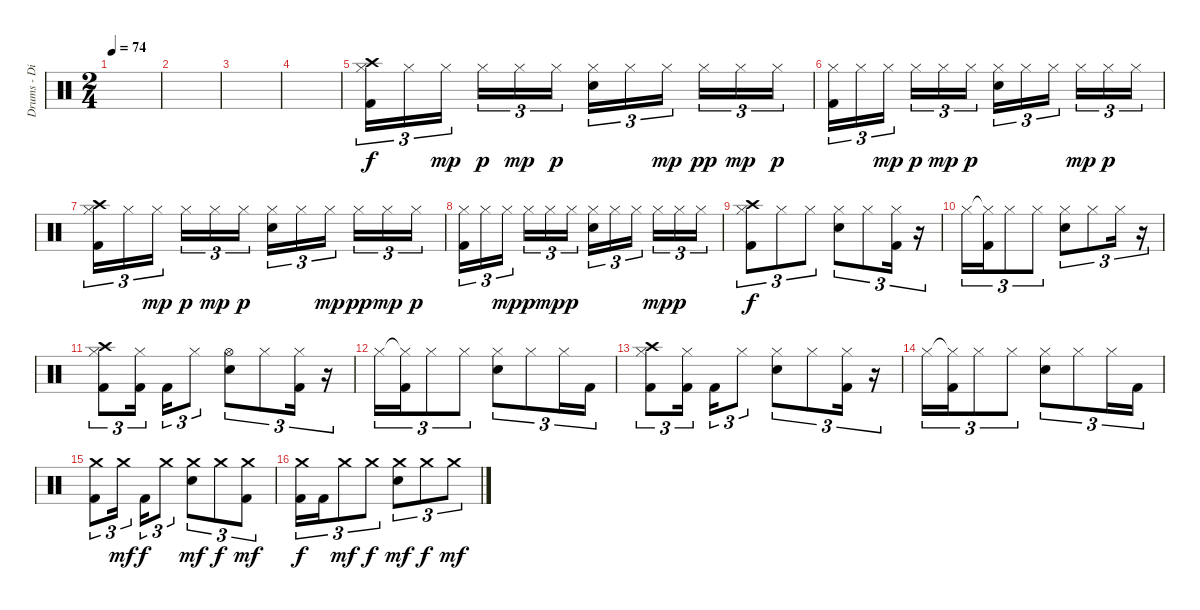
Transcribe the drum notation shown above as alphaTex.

\track ("Drums - Dino Campanella" "Drums - Di") {instrument percussion}
\staff {score}
\articulation defaults
\ts (2 4)
\tempo 74
\clef neutral
\ks c
|
|
|
|
("Crash high (hit)" "Hi-Hat (closed)" "Kick (hit) 2").16{tu (3 2)} "Hi-Hat (closed)".16{tu (3 2)} "Hi-Hat (closed)".16{tu (3 2) dy mp} "Hi-Hat (closed)".16{tu (3 2) dy p} "Hi-Hat (closed)".16{tu (3 2) dy mp} "Hi-Hat (closed)".16{tu (3 2) dy p} ("Hi-Hat (closed)" "Snare (hit) 2").16{tu (3 2)} "Hi-Hat (closed)".16{tu (3 2)} "Hi-Hat (closed)".16{tu (3 2) dy mp} "Hi-Hat (closed)".16{tu (3 2) dy pp} "Hi-Hat (closed)".16{tu (3 2) dy mp} "Hi-Hat (closed)".16{tu (3 2) dy p} |
("Hi-Hat (closed)" "Kick (hit) 2").16{tu (3 2)} "Hi-Hat (closed)".16{tu (3 2)} "Hi-Hat (closed)".16{tu (3 2) dy mp} "Hi-Hat (closed)".16{tu (3 2) dy p} "Hi-Hat (closed)".16{tu (3 2) dy mp} "Hi-Hat (closed)".16{tu (3 2) dy p} ("Hi-Hat (closed)" "Snare (hit) 2").16{tu (3 2)} "Hi-Hat (closed)".16{tu (3 2)} "Hi-Hat (closed)".16{tu (3 2)} "Hi-Hat (closed)".16{tu (3 2) dy mp} "Hi-Hat (closed)".16{tu (3 2) dy p} "Hi-Hat (closed)".16{tu (3 2)} |
("Crash high (hit)" "Hi-Hat (closed)" "Kick (hit) 2").16{tu (3 2)} "Hi-Hat (closed)".16{tu (3 2)} "Hi-Hat (closed)".16{tu (3 2) dy mp} "Hi-Hat (closed)".16{tu (3 2) dy p} "Hi-Hat (closed)".16{tu (3 2) dy mp} "Hi-Hat (closed)".16{tu (3 2) dy p} ("Hi-Hat (closed)" "Snare (hit) 2").16{tu (3 2)} "Hi-Hat (closed)".16{tu (3 2)} "Hi-Hat (closed)".16{tu (3 2) dy mp} "Hi-Hat (closed)".16{tu (3 2) dy pp} "Hi-Hat (closed)".16{tu (3 2) dy mp} "Hi-Hat (closed)".16{tu (3 2) dy p} |
("Hi-Hat (closed)" "Kick (hit) 2").16{tu (3 2)} "Hi-Hat (closed)".16{tu (3 2)} "Hi-Hat (closed)".16{tu (3 2) dy mp} "Hi-Hat (closed)".16{tu (3 2) dy p} "Hi-Hat (closed)".16{tu (3 2) dy mp} "Hi-Hat (closed)".16{tu (3 2) dy p} ("Hi-Hat (closed)" "Snare (hit) 2").16{tu (3 2)} "Hi-Hat (closed)".16{tu (3 2)} "Hi-Hat (closed)".16{tu (3 2)} "Hi-Hat (closed)".16{tu (3 2) dy mp} "Hi-Hat (closed)".16{tu (3 2) dy p} "Hi-Hat (closed)".16{tu (3 2)} |
("Crash high (hit)" "Hi-Hat (closed)" "Kick (hit) 2").8{tu (3 2) dy f} "Hi-Hat (closed)".8{tu (3 2)} "Hi-Hat (closed)".8{tu (3 2)} ("Hi-Hat (closed)" "Snare (hit) 2").8{tu (3 2)} "Hi-Hat (closed)".8{tu (3 2)} ("Hi-Hat (closed)" "Kick (hit) 2").16{tu (3 2)} r.16{tu (3 2)} |
"Hi-Hat (closed)".16{tu (3 2)} ("Hi-Hat (closed)"{t} "Kick (hit) 2").16{tu (3 2)} "Hi-Hat (closed)".8{tu (3 2)} "Hi-Hat (closed)".8{tu (3 2)} ("Hi-Hat (closed)" "Snare (hit) 2").8{tu (3 2)} "Hi-Hat (closed)".8{tu (3 2)} "Hi-Hat (closed)".16{tu (3 2)} r.16{tu (3 2)} |
("Crash high (hit)" "Hi-Hat (closed)" "Kick (hit) 2").8{tu (3 2)} ("Hi-Hat (closed)" "Kick (hit) 2").16{tu (3 2)} "Kick (hit) 2".16{tu (3 2)} "Hi-Hat (closed)".8{tu (3 2)} ("Hi-Hat (open)" "Snare (hit) 2").8{tu (3 2)} "Hi-Hat (closed)".8{tu (3 2)} ("Hi-Hat (closed)" "Kick (hit) 2").16{tu (3 2)} r.16{tu (3 2)} |
"Hi-Hat (closed)".16{tu (3 2)} ("Hi-Hat (closed)"{t} "Kick (hit) 2").16{tu (3 2)} "Hi-Hat (closed)".8{tu (3 2)} "Hi-Hat (closed)".8{tu (3 2)} ("Hi-Hat (closed)" "Snare (hit) 2").8{tu (3 2)} "Hi-Hat (closed)".8{tu (3 2)} "Hi-Hat (closed)".16{tu (3 2)} "Kick (hit) 2".16{tu (3 2)} |
("Crash high (hit)" "Hi-Hat (closed)" "Kick (hit) 2").8{tu (3 2)} ("Hi-Hat (closed)" "Kick (hit) 2").16{tu (3 2)} "Kick (hit) 2".16{tu (3 2)} "Hi-Hat (closed)".8{tu (3 2)} ("Hi-Hat (closed)" "Snare (hit) 2").8{tu (3 2)} "Hi-Hat (closed)".8{tu (3 2)} ("Hi-Hat (closed)" "Kick (hit) 2").16{tu (3 2)} r.16{tu (3 2)} |
"Hi-Hat (closed)".16{tu (3 2)} ("Hi-Hat (closed)"{t} "Kick (hit) 2").16{tu (3 2)} "Hi-Hat (closed)".8{tu (3 2)} "Hi-Hat (closed)".8{tu (3 2)} ("Hi-Hat (closed)" "Snare (hit) 2").8{tu (3 2)} "Hi-Hat (closed)".8{tu (3 2)} "Hi-Hat (closed)".16{tu (3 2)} "Kick (hit) 2".16{tu (3 2)} |
("Crash medium (hit)" "Kick (hit) 2").8{tu (3 2)} "Crash medium (hit)".16{tu (3 2) dy mf} "Kick (hit) 2".16{tu (3 2) dy f} "Crash medium (hit)".8{tu (3 2)} ("Crash medium (hit)" "Snare (hit) 2").8{tu (3 2) dy mf} "Crash medium (hit)".8{tu (3 2) dy f} ("Crash medium (hit)" "Kick (hit) 2").8{tu (3 2) dy mf} |
("Crash medium (hit)" "Kick (hit) 2").16{tu (3 2) dy f} "Kick (hit) 2".16{tu (3 2)} "Crash medium (hit)".8{tu (3 2) dy mf} "Crash medium (hit)".8{tu (3 2) dy f} ("Crash medium (hit)" "Snare (hit) 2").8{tu (3 2) dy mf} "Crash medium (hit)".8{tu (3 2) dy f} "Crash medium (hit)".8{tu (3 2) dy mf}
